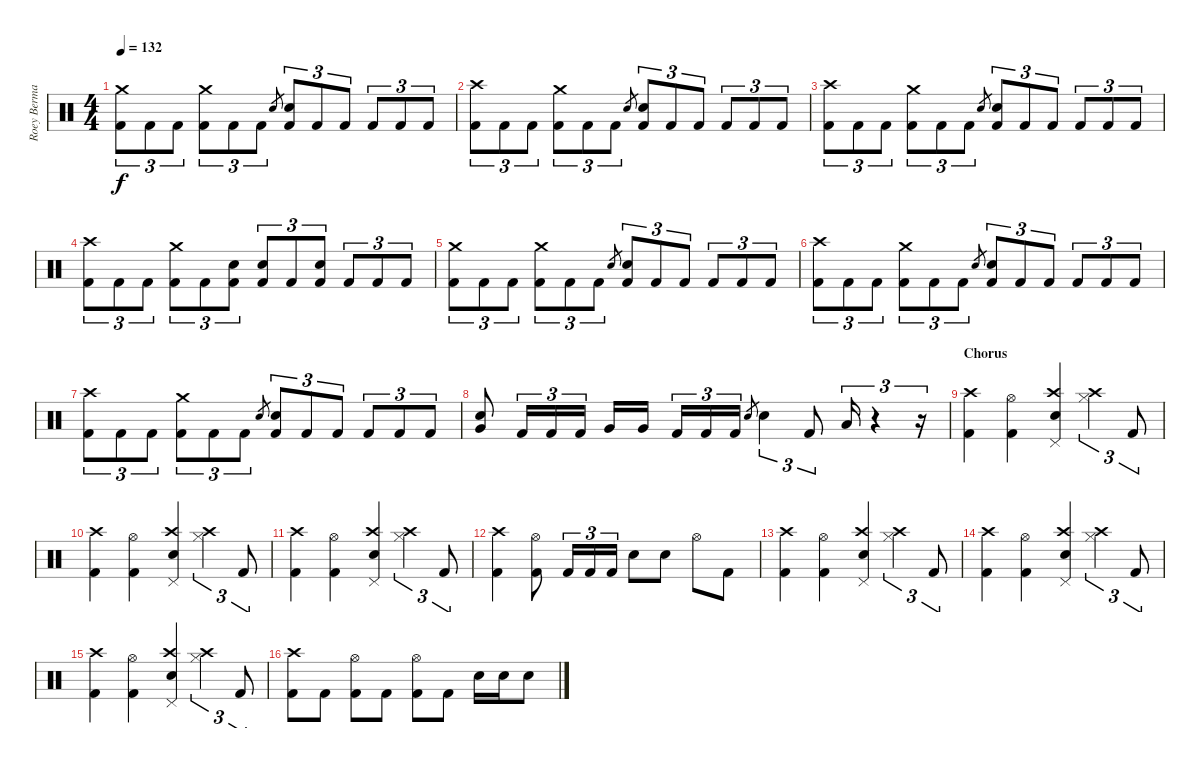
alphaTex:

\track ("Roey Berman" "Roey Berma") {instrument percussion}
\staff {score}
\articulation defaults
\ts (4 4)
\section ("" "")
\tempo 132
\clef neutral
\ks c
("Crash medium (hit)" "Kick (hit) 2").8{tu (3 2) dy f} "Kick (hit) 2".8{tu (3 2)} "Kick (hit) 2".8{tu (3 2)} ("Crash medium (hit)" "Kick (hit) 2").8{tu (3 2)} "Kick (hit) 2".8{tu (3 2)} "Kick (hit) 2".8{tu (3 2)} "Electric Snare (hit)".8{gr} ("Electric Snare (hit)" "Kick (hit) 2").8{tu (3 2)} "Kick (hit) 2".8{tu (3 2)} "Kick (hit) 2".8{tu (3 2)} "Kick (hit) 2".8{tu (3 2)} "Kick (hit) 2".8{tu (3 2)} "Kick (hit) 2".8{tu (3 2)} |
("Crash high (hit)" "Kick (hit) 2").8{tu (3 2)} "Kick (hit) 2".8{tu (3 2)} "Kick (hit) 2".8{tu (3 2)} ("Crash medium (hit)" "Kick (hit) 2").8{tu (3 2)} "Kick (hit) 2".8{tu (3 2)} "Kick (hit) 2".8{tu (3 2)} "Electric Snare (hit)".8{gr} ("Electric Snare (hit)" "Kick (hit) 2").8{tu (3 2)} "Kick (hit) 2".8{tu (3 2)} "Kick (hit) 2".8{tu (3 2)} "Kick (hit) 2".8{tu (3 2)} "Kick (hit) 2".8{tu (3 2)} "Kick (hit) 2".8{tu (3 2)} |
("Crash high (hit)" "Kick (hit) 2").8{tu (3 2)} "Kick (hit) 2".8{tu (3 2)} "Kick (hit) 2".8{tu (3 2)} ("Crash medium (hit)" "Kick (hit) 2").8{tu (3 2)} "Kick (hit) 2".8{tu (3 2)} "Kick (hit) 2".8{tu (3 2)} "Electric Snare (hit)".8{gr} ("Electric Snare (hit)" "Kick (hit) 2").8{tu (3 2)} "Kick (hit) 2".8{tu (3 2)} "Kick (hit) 2".8{tu (3 2)} "Kick (hit) 2".8{tu (3 2)} "Kick (hit) 2".8{tu (3 2)} "Kick (hit) 2".8{tu (3 2)} |
("Crash high (hit)" "Kick (hit) 2").8{tu (3 2)} "Kick (hit) 2".8{tu (3 2)} "Kick (hit) 2".8{tu (3 2)} ("Crash medium (hit)" "Kick (hit) 2").8{tu (3 2)} "Kick (hit) 2".8{tu (3 2)} ("Electric Snare (hit)" "Kick (hit) 2").8{tu (3 2)} ("Electric Snare (hit)" "Kick (hit) 2").8{tu (3 2)} "Kick (hit) 2".8{tu (3 2)} ("Electric Snare (hit)" "Kick (hit) 2").8{tu (3 2)} "Kick (hit) 2".8{tu (3 2)} "Kick (hit) 2".8{tu (3 2)} "Kick (hit) 2".8{tu (3 2)} |
("Crash medium (hit)" "Kick (hit) 2").8{tu (3 2)} "Kick (hit) 2".8{tu (3 2)} "Kick (hit) 2".8{tu (3 2)} ("Crash medium (hit)" "Kick (hit) 2").8{tu (3 2)} "Kick (hit) 2".8{tu (3 2)} "Kick (hit) 2".8{tu (3 2)} "Electric Snare (hit)".8{gr} ("Electric Snare (hit)" "Kick (hit) 2").8{tu (3 2)} "Kick (hit) 2".8{tu (3 2)} "Kick (hit) 2".8{tu (3 2)} "Kick (hit) 2".8{tu (3 2)} "Kick (hit) 2".8{tu (3 2)} "Kick (hit) 2".8{tu (3 2)} |
("Crash high (hit)" "Kick (hit) 2").8{tu (3 2)} "Kick (hit) 2".8{tu (3 2)} "Kick (hit) 2".8{tu (3 2)} ("Crash medium (hit)" "Kick (hit) 2").8{tu (3 2)} "Kick (hit) 2".8{tu (3 2)} "Kick (hit) 2".8{tu (3 2)} "Electric Snare (hit)".8{gr} ("Electric Snare (hit)" "Kick (hit) 2").8{tu (3 2)} "Kick (hit) 2".8{tu (3 2)} "Kick (hit) 2".8{tu (3 2)} "Kick (hit) 2".8{tu (3 2)} "Kick (hit) 2".8{tu (3 2)} "Kick (hit) 2".8{tu (3 2)} |
("Crash high (hit)" "Kick (hit) 2").8{tu (3 2)} "Kick (hit) 2".8{tu (3 2)} "Kick (hit) 2".8{tu (3 2)} ("Crash medium (hit)" "Kick (hit) 2").8{tu (3 2)} "Kick (hit) 2".8{tu (3 2)} "Kick (hit) 2".8{tu (3 2)} "Electric Snare (hit)".8{gr} ("Electric Snare (hit)" "Kick (hit) 2").8{tu (3 2)} "Kick (hit) 2".8{tu (3 2)} "Kick (hit) 2".8{tu (3 2)} "Kick (hit) 2".8{tu (3 2)} "Kick (hit) 2".8{tu (3 2)} "Kick (hit) 2".8{tu (3 2)} |
("Very Low Tom (hit)" "Electric Snare (hit)").8 "Kick (hit) 2".16{tu (3 2)} "Kick (hit) 2".16{tu (3 2)} "Kick (hit) 2".16{tu (3 2)} "Very Low Tom (hit)".16 "Very Low Tom (hit)".16 "Kick (hit) 2".16{tu (3 2)} "Kick (hit) 2".16{tu (3 2)} "Kick (hit) 2".16{tu (3 2)} "Electric Snare (hit)".8{gr} "Electric Snare (hit)".4{tu (3 2)} "Kick (hit) 2".8{tu (3 2)} "Low Tom (hit)".16{tu (3 2)} r.4{tu (3 2)} r.16{tu (3 2)} |
\section ("" "Chorus")
("Crash high (hit)" "Kick (hit) 2").4 ("Hi-Hat (open)" "Kick (hit) 2").4 ("Crash high (hit)" "Pedal Hi-Hat (hit)" "Electric Snare (hit)").4 ("Crash high (hit)" "Hi-Hat (closed)").4{tu (3 2)} "Kick (hit) 2".8{tu (3 2)} |
("Crash high (hit)" "Kick (hit) 2").4 ("Hi-Hat (open)" "Kick (hit) 2").4 ("Crash high (hit)" "Pedal Hi-Hat (hit)" "Electric Snare (hit)").4 ("Crash high (hit)" "Hi-Hat (closed)").4{tu (3 2)} "Kick (hit) 2".8{tu (3 2)} |
("Crash high (hit)" "Kick (hit) 2").4 ("Hi-Hat (open)" "Kick (hit) 2").4 ("Crash high (hit)" "Pedal Hi-Hat (hit)" "Electric Snare (hit)").4 ("Crash high (hit)" "Hi-Hat (closed)").4{tu (3 2)} "Kick (hit) 2".8{tu (3 2)} |
("Crash high (hit)" "Kick (hit) 2").4 ("Hi-Hat (open)" "Kick (hit) 2").8 "Kick (hit) 2".16{tu (3 2)} "Kick (hit) 2".16{tu (3 2)} "Kick (hit) 2".16{tu (3 2)} "Electric Snare (hit)".8 "Electric Snare (hit)".8 "Hi-Hat (open)".8 "Kick (hit) 2".8 |
("Crash high (hit)" "Kick (hit) 2").4 ("Hi-Hat (open)" "Kick (hit) 2").4 ("Crash high (hit)" "Pedal Hi-Hat (hit)" "Electric Snare (hit)").4 ("Crash high (hit)" "Hi-Hat (closed)").4{tu (3 2)} "Kick (hit) 2".8{tu (3 2)} |
("Crash high (hit)" "Kick (hit) 2").4 ("Hi-Hat (open)" "Kick (hit) 2").4 ("Crash high (hit)" "Pedal Hi-Hat (hit)" "Electric Snare (hit)").4 ("Crash high (hit)" "Hi-Hat (closed)").4{tu (3 2)} "Kick (hit) 2".8{tu (3 2)} |
("Crash high (hit)" "Kick (hit) 2").4 ("Hi-Hat (open)" "Kick (hit) 2").4 ("Crash high (hit)" "Pedal Hi-Hat (hit)" "Electric Snare (hit)").4 ("Crash high (hit)" "Hi-Hat (closed)").4{tu (3 2)} "Kick (hit) 2".8{tu (3 2)} |
("Crash high (hit)" "Kick (hit) 2").8 "Kick (hit) 2".8 ("Hi-Hat (open)" "Kick (hit) 2").8 "Kick (hit) 2".8 ("Hi-Hat (open)" "Kick (hit) 2").8 "Kick (hit) 2".8 "Electric Snare (hit)".16 "Electric Snare (hit)".16 "Electric Snare (hit)".8
